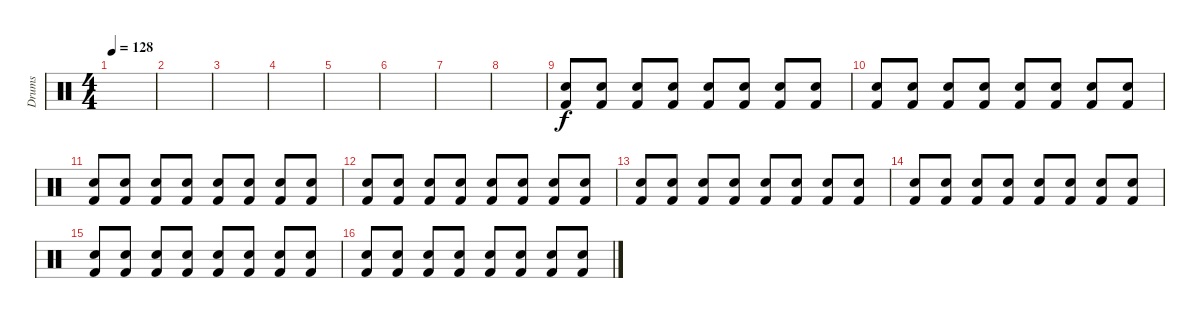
\track ("Drums" "Drums") {instrument percussion}
\staff {score}
\articulation defaults
\ts (4 4)
\tempo 128
\clef neutral
\ks c
|
|
|
|
|
|
|
|
("Snare (hit) 2" "Kick (hit) 2").8 ("Snare (hit) 2" "Kick (hit) 2").8 ("Snare (hit) 2" "Kick (hit) 2").8 ("Snare (hit) 2" "Kick (hit) 2").8 ("Snare (hit) 2" "Kick (hit) 2").8 ("Snare (hit) 2" "Kick (hit) 2").8 ("Snare (hit) 2" "Kick (hit) 2").8 ("Snare (hit) 2" "Kick (hit) 2").8 |
("Snare (hit) 2" "Kick (hit) 2").8 ("Snare (hit) 2" "Kick (hit) 2").8 ("Snare (hit) 2" "Kick (hit) 2").8 ("Snare (hit) 2" "Kick (hit) 2").8 ("Snare (hit) 2" "Kick (hit) 2").8 ("Snare (hit) 2" "Kick (hit) 2").8 ("Snare (hit) 2" "Kick (hit) 2").8 ("Snare (hit) 2" "Kick (hit) 2").8 |
("Snare (hit) 2" "Kick (hit) 2").8 ("Snare (hit) 2" "Kick (hit) 2").8 ("Snare (hit) 2" "Kick (hit) 2").8 ("Snare (hit) 2" "Kick (hit) 2").8 ("Snare (hit) 2" "Kick (hit) 2").8 ("Snare (hit) 2" "Kick (hit) 2").8 ("Snare (hit) 2" "Kick (hit) 2").8 ("Snare (hit) 2" "Kick (hit) 2").8 |
("Snare (hit) 2" "Kick (hit) 2").8 ("Snare (hit) 2" "Kick (hit) 2").8 ("Snare (hit) 2" "Kick (hit) 2").8 ("Snare (hit) 2" "Kick (hit) 2").8 ("Snare (hit) 2" "Kick (hit) 2").8 ("Snare (hit) 2" "Kick (hit) 2").8 ("Snare (hit) 2" "Kick (hit) 2").8 ("Snare (hit) 2" "Kick (hit) 2").8 |
("Snare (hit) 2" "Kick (hit) 2").8 ("Snare (hit) 2" "Kick (hit) 2").8 ("Snare (hit) 2" "Kick (hit) 2").8 ("Snare (hit) 2" "Kick (hit) 2").8 ("Snare (hit) 2" "Kick (hit) 2").8 ("Snare (hit) 2" "Kick (hit) 2").8 ("Snare (hit) 2" "Kick (hit) 2").8 ("Snare (hit) 2" "Kick (hit) 2").8 |
("Snare (hit) 2" "Kick (hit) 2").8 ("Snare (hit) 2" "Kick (hit) 2").8 ("Snare (hit) 2" "Kick (hit) 2").8 ("Snare (hit) 2" "Kick (hit) 2").8 ("Snare (hit) 2" "Kick (hit) 2").8 ("Snare (hit) 2" "Kick (hit) 2").8 ("Snare (hit) 2" "Kick (hit) 2").8 ("Snare (hit) 2" "Kick (hit) 2").8 |
("Snare (hit) 2" "Kick (hit) 2").8 ("Snare (hit) 2" "Kick (hit) 2").8 ("Snare (hit) 2" "Kick (hit) 2").8 ("Snare (hit) 2" "Kick (hit) 2").8 ("Snare (hit) 2" "Kick (hit) 2").8 ("Snare (hit) 2" "Kick (hit) 2").8 ("Snare (hit) 2" "Kick (hit) 2").8 ("Snare (hit) 2" "Kick (hit) 2").8 |
("Snare (hit) 2" "Kick (hit) 2").8 ("Snare (hit) 2" "Kick (hit) 2").8 ("Snare (hit) 2" "Kick (hit) 2").8 ("Snare (hit) 2" "Kick (hit) 2").8 ("Snare (hit) 2" "Kick (hit) 2").8 ("Snare (hit) 2" "Kick (hit) 2").8 ("Snare (hit) 2" "Kick (hit) 2").8 ("Snare (hit) 2" "Kick (hit) 2").8
